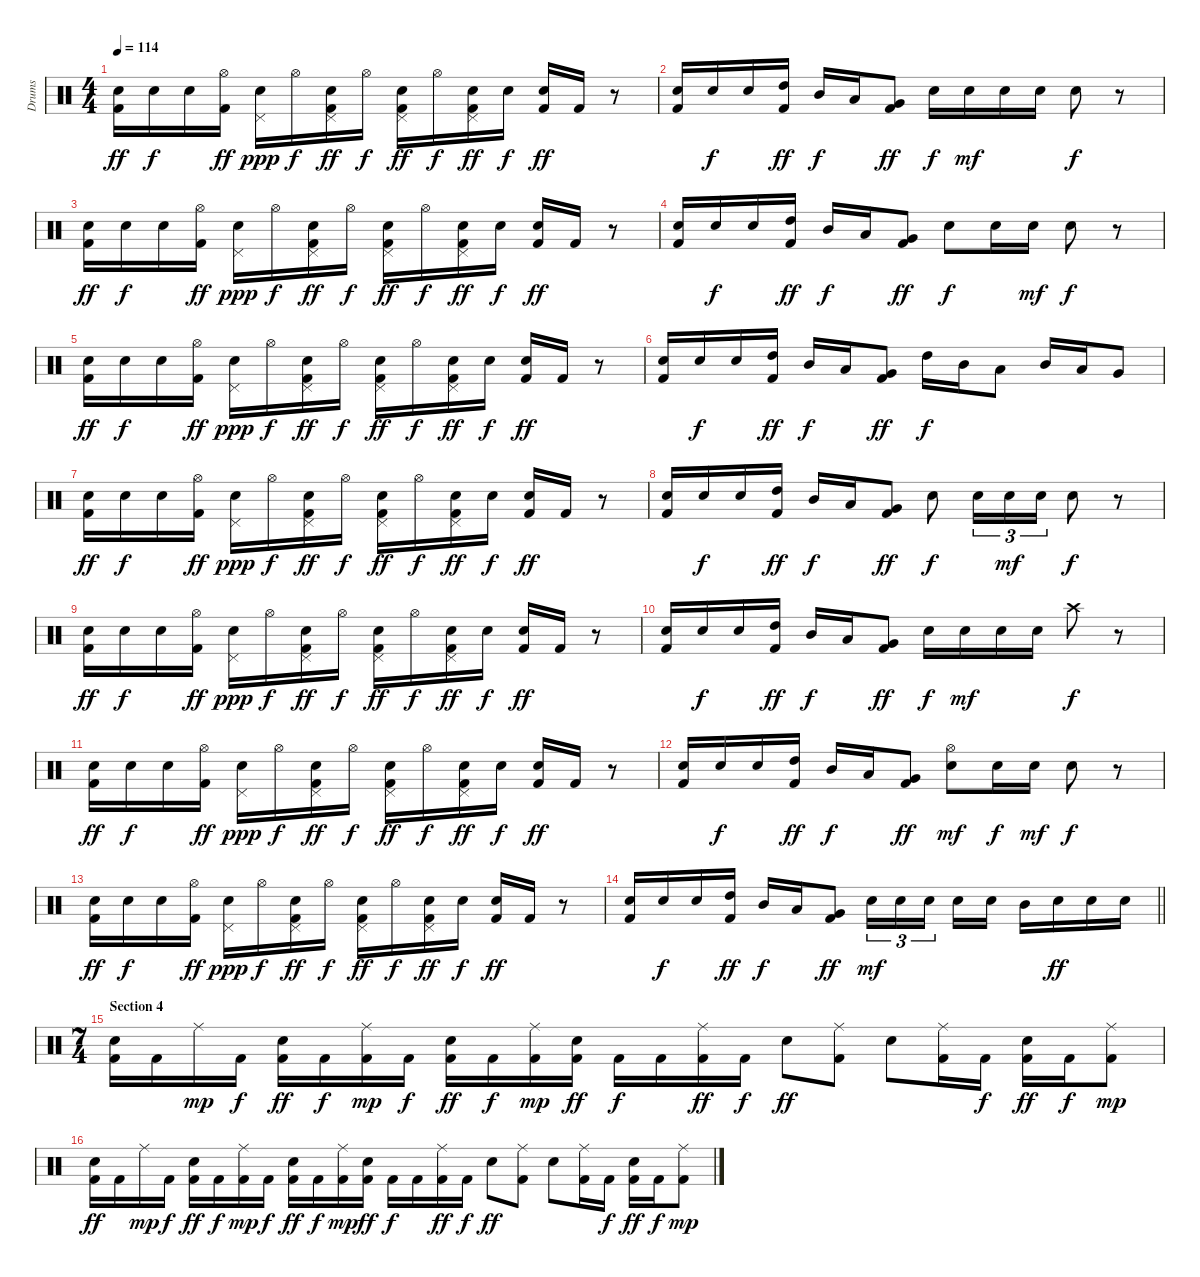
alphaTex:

\track ("Drums" "Drums") {instrument percussion}
\staff {score}
\articulation defaults
\ts (4 4)
\tempo 114
\clef neutral
\ks c
("Snare (hit) 2" "Kick (hit) 2").16{dy ff} "Electric Snare (hit)".16{dy f} "Electric Snare (hit)".16 ("Hi-Hat (open)" "Kick (hit) 2").16{dy ff} ("Pedal Hi-Hat (hit)" "Electric Snare (hit)").16{dy ppp} "Hi-Hat (open)".16{dy f} ("Pedal Hi-Hat (hit)" "Electric Snare (hit)" "Kick (hit) 2").16{dy ff} "Hi-Hat (open)".16{dy f} ("Pedal Hi-Hat (hit)" "Electric Snare (hit)" "Kick (hit) 2").16{dy ff} "Hi-Hat (open)".16{dy f} ("Pedal Hi-Hat (hit)" "Electric Snare (hit)" "Kick (hit) 2").16{dy ff} "Snare (hit) 2".16{dy f} ("Electric Snare (hit)" "Kick (hit) 2").16{dy ff} "Kick (hit) 2".16 r.8 |
("Snare (hit) 2" "Kick (hit) 2").16 "Electric Snare (hit)".16{dy f} "Electric Snare (hit)".16 ("High Tom (hit)" "Kick (hit) 2").16{dy ff} "Mid Tom (hit)".16{dy f} "Low Tom (hit)".16 ("Very Low Tom (hit)" "Kick (hit) 2").8{dy ff} "Electric Snare (hit)".16{dy f} "Electric Snare (hit)".16{dy mf} "Electric Snare (hit)".16 "Electric Snare (hit)".16 "Electric Snare (hit)".8{dy f} r.8 |
("Snare (hit) 2" "Kick (hit) 2").16{dy ff} "Electric Snare (hit)".16{dy f} "Electric Snare (hit)".16 ("Hi-Hat (open)" "Kick (hit) 2").16{dy ff} ("Pedal Hi-Hat (hit)" "Electric Snare (hit)").16{dy ppp} "Hi-Hat (open)".16{dy f} ("Pedal Hi-Hat (hit)" "Electric Snare (hit)" "Kick (hit) 2").16{dy ff} "Hi-Hat (open)".16{dy f} ("Pedal Hi-Hat (hit)" "Electric Snare (hit)" "Kick (hit) 2").16{dy ff} "Hi-Hat (open)".16{dy f} ("Pedal Hi-Hat (hit)" "Electric Snare (hit)" "Kick (hit) 2").16{dy ff} "Snare (hit) 2".16{dy f} ("Electric Snare (hit)" "Kick (hit) 2").16{dy ff} "Kick (hit) 2".16 r.8 |
("Snare (hit) 2" "Kick (hit) 2").16 "Electric Snare (hit)".16{dy f} "Electric Snare (hit)".16 ("High Tom (hit)" "Kick (hit) 2").16{dy ff} "Mid Tom (hit)".16{dy f} "Low Tom (hit)".16 ("Very Low Tom (hit)" "Kick (hit) 2").8{dy ff} "Electric Snare (hit)".8{dy f} "Snare (hit) 2".16 "Snare (hit) 2".16{dy mf} "Electric Snare (hit)".8{dy f} r.8 |
("Snare (hit) 2" "Kick (hit) 2").16{dy ff} "Electric Snare (hit)".16{dy f} "Electric Snare (hit)".16 ("Hi-Hat (open)" "Kick (hit) 2").16{dy ff} ("Pedal Hi-Hat (hit)" "Electric Snare (hit)").16{dy ppp} "Hi-Hat (open)".16{dy f} ("Pedal Hi-Hat (hit)" "Electric Snare (hit)" "Kick (hit) 2").16{dy ff} "Hi-Hat (open)".16{dy f} ("Pedal Hi-Hat (hit)" "Electric Snare (hit)" "Kick (hit) 2").16{dy ff} "Hi-Hat (open)".16{dy f} ("Pedal Hi-Hat (hit)" "Electric Snare (hit)" "Kick (hit) 2").16{dy ff} "Snare (hit) 2".16{dy f} ("Electric Snare (hit)" "Kick (hit) 2").16{dy ff} "Kick (hit) 2".16 r.8 |
("Snare (hit) 2" "Kick (hit) 2").16 "Electric Snare (hit)".16{dy f} "Electric Snare (hit)".16 ("High Tom (hit)" "Kick (hit) 2").16{dy ff} "Mid Tom (hit)".16{dy f} "Low Tom (hit)".16 ("Very Low Tom (hit)" "Kick (hit) 2").8{dy ff} "High Tom (hit)".16{dy f} "Mid Tom (hit)".16 "Low Tom (hit)".8 "Mid Tom (hit)".16 "Low Tom (hit)".16 "Very Low Tom (hit)".8 |
("Snare (hit) 2" "Kick (hit) 2").16{dy ff} "Electric Snare (hit)".16{dy f} "Electric Snare (hit)".16 ("Hi-Hat (open)" "Kick (hit) 2").16{dy ff} ("Pedal Hi-Hat (hit)" "Electric Snare (hit)").16{dy ppp} "Hi-Hat (open)".16{dy f} ("Pedal Hi-Hat (hit)" "Electric Snare (hit)" "Kick (hit) 2").16{dy ff} "Hi-Hat (open)".16{dy f} ("Pedal Hi-Hat (hit)" "Electric Snare (hit)" "Kick (hit) 2").16{dy ff} "Hi-Hat (open)".16{dy f} ("Pedal Hi-Hat (hit)" "Electric Snare (hit)" "Kick (hit) 2").16{dy ff} "Snare (hit) 2".16{dy f} ("Electric Snare (hit)" "Kick (hit) 2").16{dy ff} "Kick (hit) 2".16 r.8 |
("Snare (hit) 2" "Kick (hit) 2").16 "Electric Snare (hit)".16{dy f} "Electric Snare (hit)".16 ("High Tom (hit)" "Kick (hit) 2").16{dy ff} "Mid Tom (hit)".16{dy f} "Low Tom (hit)".16 ("Very Low Tom (hit)" "Kick (hit) 2").8{dy ff} "Electric Snare (hit)".8{dy f} "Snare (hit) 2".16{tu (3 2)} "Snare (hit) 2".16{tu (3 2) dy mf} "Snare (hit) 2".16{tu (3 2)} "Electric Snare (hit)".8{dy f} r.8 |
("Snare (hit) 2" "Kick (hit) 2").16{dy ff} "Electric Snare (hit)".16{dy f} "Electric Snare (hit)".16 ("Hi-Hat (open)" "Kick (hit) 2").16{dy ff} ("Pedal Hi-Hat (hit)" "Electric Snare (hit)").16{dy ppp} "Hi-Hat (open)".16{dy f} ("Pedal Hi-Hat (hit)" "Electric Snare (hit)" "Kick (hit) 2").16{dy ff} "Hi-Hat (open)".16{dy f} ("Pedal Hi-Hat (hit)" "Electric Snare (hit)" "Kick (hit) 2").16{dy ff} "Hi-Hat (open)".16{dy f} ("Pedal Hi-Hat (hit)" "Electric Snare (hit)" "Kick (hit) 2").16{dy ff} "Snare (hit) 2".16{dy f} ("Electric Snare (hit)" "Kick (hit) 2").16{dy ff} "Kick (hit) 2".16 r.8 |
("Snare (hit) 2" "Kick (hit) 2").16 "Electric Snare (hit)".16{dy f} "Electric Snare (hit)".16 ("High Tom (hit)" "Kick (hit) 2").16{dy ff} "Mid Tom (hit)".16{dy f} "Low Tom (hit)".16 ("Very Low Tom (hit)" "Kick (hit) 2").8{dy ff} "Electric Snare (hit)".16{dy f} "Electric Snare (hit)".16{dy mf} "Electric Snare (hit)".16 "Electric Snare (hit)".16 "Crash high (hit)".8{dy f} r.8 |
("Snare (hit) 2" "Kick (hit) 2").16{dy ff} "Electric Snare (hit)".16{dy f} "Electric Snare (hit)".16 ("Hi-Hat (open)" "Kick (hit) 2").16{dy ff} ("Pedal Hi-Hat (hit)" "Electric Snare (hit)").16{dy ppp} "Hi-Hat (open)".16{dy f} ("Pedal Hi-Hat (hit)" "Electric Snare (hit)" "Kick (hit) 2").16{dy ff} "Hi-Hat (open)".16{dy f} ("Pedal Hi-Hat (hit)" "Electric Snare (hit)" "Kick (hit) 2").16{dy ff} "Hi-Hat (open)".16{dy f} ("Pedal Hi-Hat (hit)" "Electric Snare (hit)" "Kick (hit) 2").16{dy ff} "Snare (hit) 2".16{dy f} ("Electric Snare (hit)" "Kick (hit) 2").16{dy ff} "Kick (hit) 2".16 r.8 |
("Snare (hit) 2" "Kick (hit) 2").16 "Electric Snare (hit)".16{dy f} "Electric Snare (hit)".16 ("High Tom (hit)" "Kick (hit) 2").16{dy ff} "Mid Tom (hit)".16{dy f} "Low Tom (hit)".16 ("Very Low Tom (hit)" "Kick (hit) 2").8{dy ff} ("Hi-Hat (open)" "Electric Snare (hit)").8{dy mf} "Snare (hit) 2".16{dy f} "Snare (hit) 2".16{dy mf} "Electric Snare (hit)".8{dy f} r.8 |
("Snare (hit) 2" "Kick (hit) 2").16{dy ff} "Electric Snare (hit)".16{dy f} "Electric Snare (hit)".16 ("Hi-Hat (open)" "Kick (hit) 2").16{dy ff} ("Pedal Hi-Hat (hit)" "Electric Snare (hit)").16{dy ppp} "Hi-Hat (open)".16{dy f} ("Pedal Hi-Hat (hit)" "Electric Snare (hit)" "Kick (hit) 2").16{dy ff} "Hi-Hat (open)".16{dy f} ("Pedal Hi-Hat (hit)" "Electric Snare (hit)" "Kick (hit) 2").16{dy ff} "Hi-Hat (open)".16{dy f} ("Pedal Hi-Hat (hit)" "Electric Snare (hit)" "Kick (hit) 2").16{dy ff} "Snare (hit) 2".16{dy f} ("Electric Snare (hit)" "Kick (hit) 2").16{dy ff} "Kick (hit) 2".16 r.8 |
\barLineRight lightlight
("Snare (hit) 2" "Kick (hit) 2").16 "Electric Snare (hit)".16{dy f} "Electric Snare (hit)".16 ("High Tom (hit)" "Kick (hit) 2").16{dy ff} "Mid Tom (hit)".16{dy f} "Low Tom (hit)".16 ("Very Low Tom (hit)" "Kick (hit) 2").8{dy ff} "Snare (hit) 2".16{tu (3 2) dy mf} "Snare (hit) 2".16{tu (3 2)} "Snare (hit) 2".16{tu (3 2) beam splitsecondary} "Snare (hit) 2".16 "Snare (hit) 2".16 "Mid Tom (hit)".16 "Snare (hit) 2".16{dy ff} "Snare (hit) 2".16 "Snare (hit) 2".16 |
\ts (7 4)
\section ("" "Section 4")
("Snare (hit) 2" "Kick (hit) 2").16 "Kick (hit) 2".16 "Ride (middle)".16{dy mp} "Kick (hit) 2".16{dy f} ("Snare (hit) 2" "Kick (hit) 2").16{dy ff} "Kick (hit) 2".16{dy f} ("Ride (middle)" "Kick (hit) 2").16{dy mp} "Kick (hit) 2".16{dy f} ("Snare (hit) 2" "Kick (hit) 2").16{dy ff} "Kick (hit) 2".16{dy f} ("Ride (middle)" "Kick (hit) 2").16{dy mp} ("Snare (hit) 2" "Kick (hit) 2").16{dy ff} "Kick (hit) 2".16{dy f} "Kick (hit) 2".16 ("Ride (middle)" "Kick (hit) 2").16{dy ff} "Kick (hit) 2".16{dy f} "Snare (hit) 2".8{dy ff} ("Ride (middle)" "Kick (hit) 2").8 "Snare (hit) 2".8 ("Ride (middle)" "Kick (hit) 2").16 "Kick (hit) 2".16{dy f} ("Snare (hit) 2" "Kick (hit) 2").16{dy ff} "Kick (hit) 2".16{dy f} ("Ride (middle)" "Kick (hit) 2").8{dy mp} |
("Snare (hit) 2" "Kick (hit) 2").16{dy ff} "Kick (hit) 2".16 "Ride (middle)".16{dy mp} "Kick (hit) 2".16{dy f} ("Snare (hit) 2" "Kick (hit) 2").16{dy ff} "Kick (hit) 2".16{dy f} ("Ride (middle)" "Kick (hit) 2").16{dy mp} "Kick (hit) 2".16{dy f} ("Snare (hit) 2" "Kick (hit) 2").16{dy ff} "Kick (hit) 2".16{dy f} ("Ride (middle)" "Kick (hit) 2").16{dy mp} ("Snare (hit) 2" "Kick (hit) 2").16{dy ff} "Kick (hit) 2".16{dy f} "Kick (hit) 2".16 ("Ride (middle)" "Kick (hit) 2").16{dy ff} "Kick (hit) 2".16{dy f} "Snare (hit) 2".8{dy ff} ("Ride (middle)" "Kick (hit) 2").8 "Snare (hit) 2".8 ("Ride (middle)" "Kick (hit) 2").16 "Kick (hit) 2".16{dy f} ("Snare (hit) 2" "Kick (hit) 2").16{dy ff} "Kick (hit) 2".16{dy f} ("Ride (middle)" "Kick (hit) 2").8{dy mp}
